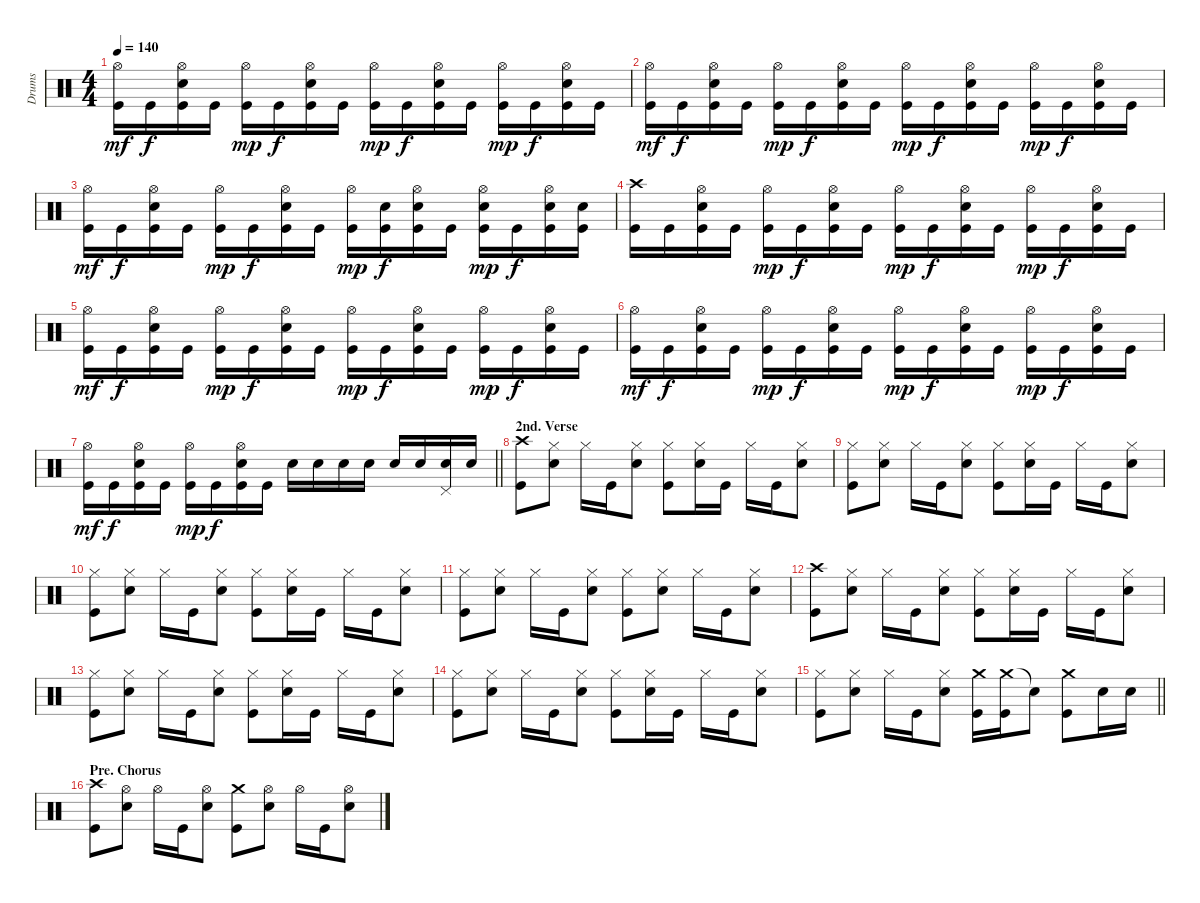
\track ("Drums" "Drums") {instrument percussion}
\staff {score}
\articulation defaults
\ts (4 4)
\tempo 140
\clef neutral
\ks c
("Hi-Hat (open)" "Kick (hit)").16{dy mf} "Kick (hit)".16{dy f} ("Hi-Hat (open)" "Electric Snare (hit)" "Kick (hit)").16 "Kick (hit)".16 ("Hi-Hat (open)" "Kick (hit)").16{dy mp} "Kick (hit)".16{dy f} ("Hi-Hat (open)" "Electric Snare (hit)" "Kick (hit)").16 "Kick (hit)".16 ("Hi-Hat (open)" "Kick (hit)").16{dy mp} "Kick (hit)".16{dy f} ("Hi-Hat (open)" "Electric Snare (hit)" "Kick (hit)").16 "Kick (hit)".16 ("Hi-Hat (open)" "Kick (hit)").16{dy mp} "Kick (hit)".16{dy f} ("Hi-Hat (open)" "Electric Snare (hit)" "Kick (hit)").16 "Kick (hit)".16 |
("Hi-Hat (open)" "Kick (hit)").16{dy mf} "Kick (hit)".16{dy f} ("Hi-Hat (open)" "Electric Snare (hit)" "Kick (hit)").16 "Kick (hit)".16 ("Hi-Hat (open)" "Kick (hit)").16{dy mp} "Kick (hit)".16{dy f} ("Hi-Hat (open)" "Electric Snare (hit)" "Kick (hit)").16 "Kick (hit)".16 ("Hi-Hat (open)" "Kick (hit)").16{dy mp} "Kick (hit)".16{dy f} ("Hi-Hat (open)" "Electric Snare (hit)" "Kick (hit)").16 "Kick (hit)".16 ("Hi-Hat (open)" "Kick (hit)").16{dy mp} "Kick (hit)".16{dy f} ("Hi-Hat (open)" "Electric Snare (hit)" "Kick (hit)").16 "Kick (hit)".16 |
("Hi-Hat (open)" "Kick (hit)").16{dy mf} "Kick (hit)".16{dy f} ("Hi-Hat (open)" "Electric Snare (hit)" "Kick (hit)").16 "Kick (hit)".16 ("Hi-Hat (open)" "Kick (hit)").16{dy mp} "Kick (hit)".16{dy f} ("Hi-Hat (open)" "Electric Snare (hit)" "Kick (hit)").16 "Kick (hit)".16 ("Hi-Hat (open)" "Kick (hit)").16{dy mp} ("Electric Snare (hit)" "Kick (hit)").16{dy f} ("Hi-Hat (open)" "Electric Snare (hit)" "Kick (hit)").16 "Kick (hit)".16 ("Hi-Hat (open)" "Electric Snare (hit)" "Kick (hit)").16{dy mp} "Kick (hit)".16{dy f} ("Hi-Hat (open)" "Electric Snare (hit)" "Kick (hit)").16 ("Electric Snare (hit)" "Kick (hit)").16 |
("Crash high (hit)" "Kick (hit)").16 "Kick (hit)".16 ("Hi-Hat (open)" "Electric Snare (hit)" "Kick (hit)").16 "Kick (hit)".16 ("Hi-Hat (open)" "Kick (hit)").16{dy mp} "Kick (hit)".16{dy f} ("Hi-Hat (open)" "Electric Snare (hit)" "Kick (hit)").16 "Kick (hit)".16 ("Hi-Hat (open)" "Kick (hit)").16{dy mp} "Kick (hit)".16{dy f} ("Hi-Hat (open)" "Electric Snare (hit)" "Kick (hit)").16 "Kick (hit)".16 ("Hi-Hat (open)" "Kick (hit)").16{dy mp} "Kick (hit)".16{dy f} ("Hi-Hat (open)" "Electric Snare (hit)" "Kick (hit)").16 "Kick (hit)".16 |
("Hi-Hat (open)" "Kick (hit)").16{dy mf} "Kick (hit)".16{dy f} ("Hi-Hat (open)" "Electric Snare (hit)" "Kick (hit)").16 "Kick (hit)".16 ("Hi-Hat (open)" "Kick (hit)").16{dy mp} "Kick (hit)".16{dy f} ("Hi-Hat (open)" "Electric Snare (hit)" "Kick (hit)").16 "Kick (hit)".16 ("Hi-Hat (open)" "Kick (hit)").16{dy mp} "Kick (hit)".16{dy f} ("Hi-Hat (open)" "Electric Snare (hit)" "Kick (hit)").16 "Kick (hit)".16 ("Hi-Hat (open)" "Kick (hit)").16{dy mp} "Kick (hit)".16{dy f} ("Hi-Hat (open)" "Electric Snare (hit)" "Kick (hit)").16 "Kick (hit)".16 |
("Hi-Hat (open)" "Kick (hit)").16{dy mf} "Kick (hit)".16{dy f} ("Hi-Hat (open)" "Electric Snare (hit)" "Kick (hit)").16 "Kick (hit)".16 ("Hi-Hat (open)" "Kick (hit)").16{dy mp} "Kick (hit)".16{dy f} ("Hi-Hat (open)" "Electric Snare (hit)" "Kick (hit)").16 "Kick (hit)".16 ("Hi-Hat (open)" "Kick (hit)").16{dy mp} "Kick (hit)".16{dy f} ("Hi-Hat (open)" "Electric Snare (hit)" "Kick (hit)").16 "Kick (hit)".16 ("Hi-Hat (open)" "Kick (hit)").16{dy mp} "Kick (hit)".16{dy f} ("Hi-Hat (open)" "Electric Snare (hit)" "Kick (hit)").16 "Kick (hit)".16 |
\barLineRight lightlight
("Hi-Hat (open)" "Kick (hit)").16{dy mf} "Kick (hit)".16{dy f} ("Hi-Hat (open)" "Electric Snare (hit)" "Kick (hit)").16 "Kick (hit)".16 ("Hi-Hat (open)" "Kick (hit)").16{dy mp} "Kick (hit)".16{dy f} ("Hi-Hat (open)" "Electric Snare (hit)" "Kick (hit)").16 "Kick (hit)".16 "Electric Snare (hit)".16 "Electric Snare (hit)".16 "Electric Snare (hit)".16 "Electric Snare (hit)".16 "Electric Snare (hit)".16 "Electric Snare (hit)".16 ("Electric Snare (hit)" "Pedal Hi-Hat (hit)").16 "Electric Snare (hit)".16 |
\section ("" "2nd. Verse")
("Crash high (hit)" "Kick (hit)").8 ("Hi-Hat (closed)" "Electric Snare (hit)").8 "Hi-Hat (closed)".16 "Kick (hit)".16 ("Hi-Hat (closed)" "Electric Snare (hit)").8 ("Hi-Hat (closed)" "Kick (hit)").8 ("Hi-Hat (closed)" "Electric Snare (hit)").16 "Kick (hit)".16 "Hi-Hat (closed)".16 "Kick (hit)".16 ("Hi-Hat (closed)" "Electric Snare (hit)").8 |
("Hi-Hat (closed)" "Kick (hit)").8 ("Hi-Hat (closed)" "Electric Snare (hit)").8 "Hi-Hat (closed)".16 "Kick (hit)".16 ("Hi-Hat (closed)" "Electric Snare (hit)").8 ("Hi-Hat (closed)" "Kick (hit)").8 ("Hi-Hat (closed)" "Electric Snare (hit)").16 "Kick (hit)".16 "Hi-Hat (closed)".16 "Kick (hit)".16 ("Hi-Hat (closed)" "Electric Snare (hit)").8 |
("Hi-Hat (closed)" "Kick (hit)").8 ("Hi-Hat (closed)" "Electric Snare (hit)").8 "Hi-Hat (closed)".16 "Kick (hit)".16 ("Hi-Hat (closed)" "Electric Snare (hit)").8 ("Hi-Hat (closed)" "Kick (hit)").8 ("Hi-Hat (closed)" "Electric Snare (hit)").16 "Kick (hit)".16 "Hi-Hat (closed)".16 "Kick (hit)".16 ("Hi-Hat (closed)" "Electric Snare (hit)").8 |
("Hi-Hat (closed)" "Kick (hit)").8 ("Hi-Hat (closed)" "Electric Snare (hit)").8 "Hi-Hat (closed)".16 "Kick (hit)".16 ("Hi-Hat (closed)" "Electric Snare (hit)").8 ("Hi-Hat (closed)" "Kick (hit)").8 ("Hi-Hat (closed)" "Electric Snare (hit)").8 "Hi-Hat (closed)".16 "Kick (hit)".16 ("Hi-Hat (closed)" "Electric Snare (hit)").8 |
("Crash high (hit)" "Kick (hit)").8 ("Hi-Hat (closed)" "Electric Snare (hit)").8 "Hi-Hat (closed)".16 "Kick (hit)".16 ("Hi-Hat (closed)" "Electric Snare (hit)").8 ("Hi-Hat (closed)" "Kick (hit)").8 ("Hi-Hat (closed)" "Electric Snare (hit)").16 "Kick (hit)".16 "Hi-Hat (closed)".16 "Kick (hit)".16 ("Hi-Hat (closed)" "Electric Snare (hit)").8 |
("Hi-Hat (closed)" "Kick (hit)").8 ("Hi-Hat (closed)" "Electric Snare (hit)").8 "Hi-Hat (closed)".16 "Kick (hit)".16 ("Hi-Hat (closed)" "Electric Snare (hit)").8 ("Hi-Hat (closed)" "Kick (hit)").8 ("Hi-Hat (closed)" "Electric Snare (hit)").16 "Kick (hit)".16 "Hi-Hat (closed)".16 "Kick (hit)".16 ("Hi-Hat (closed)" "Electric Snare (hit)").8 |
("Hi-Hat (closed)" "Kick (hit)").8 ("Hi-Hat (closed)" "Electric Snare (hit)").8 "Hi-Hat (closed)".16 "Kick (hit)".16 ("Hi-Hat (closed)" "Electric Snare (hit)").8 ("Hi-Hat (closed)" "Kick (hit)").8 ("Hi-Hat (closed)" "Electric Snare (hit)").16 "Kick (hit)".16 "Hi-Hat (closed)".16 "Kick (hit)".16 ("Hi-Hat (closed)" "Electric Snare (hit)").8 |
\barLineRight lightlight
("Hi-Hat (closed)" "Kick (hit)").8 ("Hi-Hat (closed)" "Electric Snare (hit)").8 "Hi-Hat (closed)".16 "Kick (hit)".16 ("Hi-Hat (closed)" "Electric Snare (hit)").8 ("Crash medium (hit)" "Kick (hit)").16 ("Crash medium (hit)" "Kick (hit)").16 "Snare (hit)"{t}.8 ("Crash medium (hit)" "Kick (hit)").8 "Electric Snare (hit)".16 "Electric Snare (hit)".16 |
\section ("" "Pre. Chorus")
("Crash high (hit)" "Kick (hit)").8 ("Hi-Hat (open)" "Electric Snare (hit)").8 "Hi-Hat (open)".16 "Kick (hit)".16 ("Hi-Hat (open)" "Electric Snare (hit)").8 ("Crash medium (hit)" "Kick (hit)").8 ("Hi-Hat (open)" "Electric Snare (hit)").8 "Hi-Hat (open)".16 "Kick (hit)".16 ("Hi-Hat (open)" "Electric Snare (hit)").8
